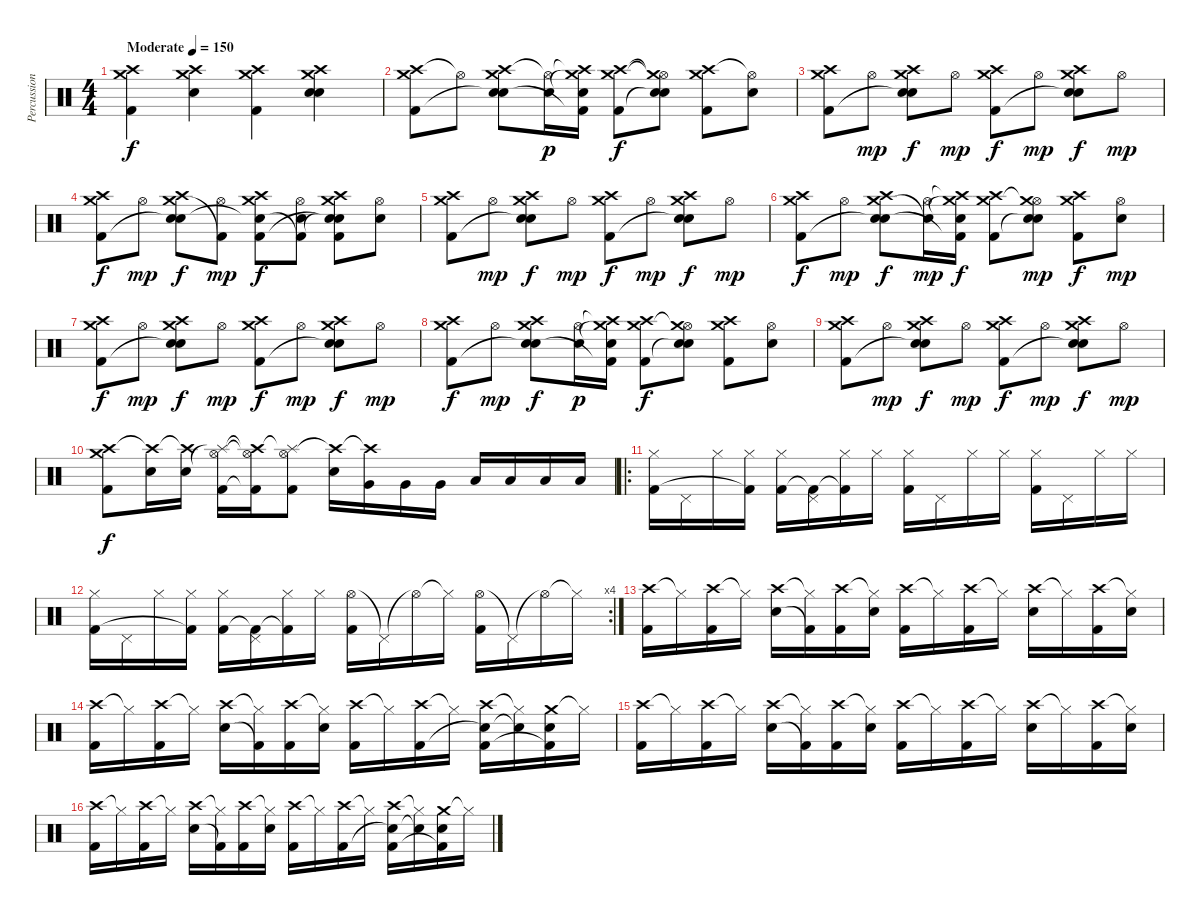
\track ("Percussion" "Percussion") {instrument percussion}
\staff {score}
\articulation defaults
\ts (4 4)
\tempo (150 "Moderate")
\clef neutral
\ks c
("Crash high (hit)" "Crash medium (hit)" "Kick (hit) 2").4{dy f} ("Crash high (hit)" "Crash medium (hit)" "Electric Snare (hit)").4 ("Crash high (hit)" "Crash medium (hit)" "Kick (hit) 2").4 ("Crash high (hit)" "Crash medium (hit)" "Electric Snare (hit)" "Electric Snare (hit)").4 |
("Crash high (hit)" "Crash medium (hit)" "Kick (hit) 2").8 "Hi-Hat (open)"{t}.8 ("Crash high (hit)" "Crash medium (hit)" "Snare (hit) 2"{t} "Electric Snare (hit)").8 ("Hi-Hat (open)"{t} "Electric Snare (hit)").16{dy p} ("Crash high (hit)"{t} "Crash medium (hit)"{t} "Electric Snare (hit)" "Kick (hit) 2"{t}).16 ("Crash high (hit)" "Crash medium (hit)" "Kick (hit) 2").8{dy f} ("Hi-Hat (open)"{t} "Crash medium (hit)"{t} "Snare (hit) 2"{t} "Electric Snare (hit)").8 ("Crash high (hit)" "Crash medium (hit)" "Kick (hit) 2").8 ("Hi-Hat (open)"{t} "Electric Snare (hit)").8 |
("Crash high (hit)" "Crash medium (hit)" "Kick (hit) 2").8 "Hi-Hat (open)".8{dy mp} ("Crash high (hit)" "Crash medium (hit)" "Snare (hit) 2"{t} "Electric Snare (hit)").8{dy f} "Hi-Hat (open)".8{dy mp} ("Crash high (hit)" "Crash medium (hit)" "Kick (hit) 2").8{dy f} "Hi-Hat (open)".8{dy mp} ("Crash high (hit)" "Crash medium (hit)" "Snare (hit) 2"{t} "Electric Snare (hit)").8{dy f} "Hi-Hat (open)".8{dy mp} |
("Crash high (hit)" "Crash medium (hit)" "Kick (hit) 2").8{dy f} "Hi-Hat (open)".8{dy mp} ("Crash high (hit)" "Crash medium (hit)" "Snare (hit) 2"{t} "Electric Snare (hit)").8{dy f} ("Hi-Hat (open)" "Kick (hit) 2"{t}).8{dy mp} ("Crash high (hit)" "Crash medium (hit)" "Electric Snare (hit)"{t} "Kick (hit) 2").8{dy f} ("Hi-Hat (open)" "Electric Snare (hit)" "Kick (hit) 2"{t}).8 ("Crash high (hit)" "Crash medium (hit)" "Snare (hit) 2"{t} "Electric Snare (hit)"{t} "Kick (hit) 2").8 ("Hi-Hat (open)" "Electric Snare (hit)").8 |
("Crash high (hit)" "Crash medium (hit)" "Kick (hit) 2").8 "Hi-Hat (open)".8{dy mp} ("Crash high (hit)" "Crash medium (hit)" "Snare (hit) 2"{t} "Electric Snare (hit)").8{dy f} "Hi-Hat (open)".8{dy mp} ("Crash high (hit)" "Crash medium (hit)" "Kick (hit) 2").8{dy f} "Hi-Hat (open)".8{dy mp} ("Crash high (hit)" "Crash medium (hit)" "Snare (hit) 2"{t} "Electric Snare (hit)").8{dy f} "Hi-Hat (open)".8{dy mp} |
("Crash high (hit)" "Crash medium (hit)" "Kick (hit) 2").8{dy f} "Hi-Hat (open)".8{dy mp} ("Crash high (hit)" "Crash medium (hit)" "Snare (hit) 2"{t} "Electric Snare (hit)").8{dy f} ("Hi-Hat (open)" "Electric Snare (hit)"{t}).16{dy mp} ("Crash high (hit)"{t} "Crash medium (hit)"{t} "Electric Snare (hit)" "Kick (hit) 2"{t}).16{dy f} ("Crash high (hit)" "Crash medium (hit)" "Kick (hit) 2").8 ("Hi-Hat (open)" "Crash medium (hit)"{t} "Snare (hit) 2"{t} "Electric Snare (hit)").8{dy mp} ("Crash high (hit)" "Crash medium (hit)" "Kick (hit) 2").8{dy f} ("Hi-Hat (open)" "Electric Snare (hit)").8{dy mp} |
("Crash high (hit)" "Crash medium (hit)" "Kick (hit) 2").8{dy f} "Hi-Hat (open)".8{dy mp} ("Crash high (hit)" "Crash medium (hit)" "Snare (hit) 2"{t} "Electric Snare (hit)").8{dy f} "Hi-Hat (open)".8{dy mp} ("Crash high (hit)" "Crash medium (hit)" "Kick (hit) 2").8{dy f} "Hi-Hat (open)".8{dy mp} ("Crash high (hit)" "Crash medium (hit)" "Snare (hit) 2"{t} "Electric Snare (hit)").8{dy f} "Hi-Hat (open)".8{dy mp} |
("Crash high (hit)" "Crash medium (hit)" "Kick (hit) 2").8{dy f} "Hi-Hat (open)".8{dy mp} ("Crash high (hit)" "Crash medium (hit)" "Snare (hit) 2"{t} "Electric Snare (hit)").8{dy f} ("Hi-Hat (open)" "Electric Snare (hit)").16{dy p} ("Crash high (hit)"{t} "Crash medium (hit)"{t} "Electric Snare (hit)" "Kick (hit) 2"{t}).16 ("Crash high (hit)" "Crash medium (hit)" "Kick (hit) 2").8{dy f} ("Hi-Hat (open)" "Crash medium (hit)"{t} "Snare (hit) 2"{t} "Electric Snare (hit)").8 ("Crash high (hit)" "Crash medium (hit)" "Kick (hit) 2").8 ("Hi-Hat (open)" "Electric Snare (hit)").8 |
("Crash high (hit)" "Crash medium (hit)" "Kick (hit) 2").8 "Hi-Hat (open)".8{dy mp} ("Crash high (hit)" "Crash medium (hit)" "Snare (hit) 2"{t} "Electric Snare (hit)").8{dy f} "Hi-Hat (open)".8{dy mp} ("Crash high (hit)" "Crash medium (hit)" "Kick (hit) 2").8{dy f} "Hi-Hat (open)".8{dy mp} ("Crash high (hit)" "Crash medium (hit)" "Snare (hit) 2"{t} "Electric Snare (hit)").8{dy f} "Hi-Hat (open)".8{dy mp} |
("Crash high (hit)" "Crash medium (hit)" "Kick (hit) 2").8{dy f} ("Crash high (hit)"{t} "Electric Snare (hit)").16 ("Crash high (hit)"{t} "Electric Snare (hit)").16 ("Hi-Hat (open)" "Splash (hit)"{t} "Kick (hit) 2").16 ("Hi-Hat (open)"{t} "Crash high (hit)"{t} "Kick (hit) 2"{t}).16 ("Hi-Hat (open)" "Splash (hit)"{t} "Kick (hit) 2").8 ("Crash high (hit)"{t} "Electric Snare (hit)").16 ("Crash high (hit)"{t} "Very Low Tom (hit)").16 "Very Low Tom (hit)".16 "Very Low Tom (hit)".16 "Low Floor Tom (hit)".16 "Low Floor Tom (hit)".16 "Low Floor Tom (hit)".16 "Low Floor Tom (hit)".16 |
\ro
("Hi-Hat (closed)" "Kick (hit) 2").16 "Pedal Hi-Hat (hit)".16 "Hi-Hat (closed)".16 ("Hi-Hat (closed)" "Kick (hit) 2"{t}).16 ("Hi-Hat (closed)" "Kick (hit) 2").16 ("Pedal Hi-Hat (hit)" "Kick (hit) 2"{t}).16 ("Hi-Hat (closed)" "Kick (hit) 2"{t}).16 "Hi-Hat (closed)".16 ("Hi-Hat (closed)" "Kick (hit) 2").16 "Pedal Hi-Hat (hit)".16 "Hi-Hat (closed)".16 "Hi-Hat (closed)".16 ("Hi-Hat (closed)" "Kick (hit) 2").16 "Pedal Hi-Hat (hit)".16 "Hi-Hat (closed)".16 "Hi-Hat (closed)".16 |
\rc 4
("Hi-Hat (closed)" "Kick (hit) 2").16 "Pedal Hi-Hat (hit)".16 "Hi-Hat (closed)".16 ("Hi-Hat (closed)" "Kick (hit) 2"{t}).16 ("Hi-Hat (closed)" "Kick (hit) 2").16 ("Pedal Hi-Hat (hit)" "Kick (hit) 2"{t}).16 ("Hi-Hat (closed)" "Kick (hit) 2"{t}).16 "Hi-Hat (closed)".16 ("Hi-Hat (open)" "Kick (hit) 2").16 "Pedal Hi-Hat (hit)"{t}.16 "Hi-Hat (open)"{t}.16 "Hi-Hat (closed)"{t}.16 ("Hi-Hat (open)" "Kick (hit) 2").16 "Pedal Hi-Hat (hit)"{t}.16 "Hi-Hat (open)"{t}.16 "Hi-Hat (closed)"{t}.16 |
("Crash high (hit)" "Kick (hit) 2").16 "Hi-Hat (closed)"{t}.16 ("Crash high (hit)" "Kick (hit) 2").16 "Hi-Hat (closed)"{t}.16 ("Crash high (hit)" "Electric Snare (hit)").16 ("Hi-Hat (closed)"{t} "Kick (hit) 2"{t}).16 ("Crash high (hit)" "Kick (hit) 2").16 ("Hi-Hat (closed)"{t} "Electric Snare (hit)").16 ("Crash high (hit)" "Kick (hit) 2").16 "Hi-Hat (closed)"{t}.16 ("Crash high (hit)" "Kick (hit) 2").16 "Hi-Hat (closed)"{t}.16 ("Crash high (hit)" "Electric Snare (hit)").16 "Hi-Hat (closed)"{t}.16 ("Crash high (hit)" "Kick (hit) 2").16 ("Hi-Hat (closed)"{t} "Electric Snare (hit)").16 |
("Crash high (hit)" "Kick (hit) 2").16 "Hi-Hat (closed)"{t}.16 ("Crash high (hit)" "Kick (hit) 2").16 "Hi-Hat (closed)"{t}.16 ("Crash high (hit)" "Electric Snare (hit)").16 ("Hi-Hat (closed)"{t} "Kick (hit) 2"{t}).16 ("Crash high (hit)" "Kick (hit) 2").16 ("Hi-Hat (closed)"{t} "Electric Snare (hit)").16 ("Crash high (hit)" "Kick (hit) 2").16 "Hi-Hat (closed)"{t}.16 ("Crash high (hit)" "Kick (hit) 2").16 "Hi-Hat (closed)"{t}.16 ("Crash high (hit)" "Electric Snare (hit)"{t} "Kick (hit) 2").16 ("Hi-Hat (closed)"{t} "Electric Snare (hit)"{t}).16 ("Crash medium (hit)" "Electric Snare (hit)" "Kick (hit) 2"{t}).16 "Hi-Hat (closed)"{t}.16 |
("Crash high (hit)" "Kick (hit) 2").16 "Hi-Hat (closed)"{t}.16 ("Crash high (hit)" "Kick (hit) 2").16 "Hi-Hat (closed)"{t}.16 ("Crash high (hit)" "Electric Snare (hit)").16 ("Hi-Hat (closed)"{t} "Kick (hit) 2"{t}).16 ("Crash high (hit)" "Kick (hit) 2").16 ("Hi-Hat (closed)"{t} "Electric Snare (hit)").16 ("Crash high (hit)" "Kick (hit) 2").16 "Hi-Hat (closed)"{t}.16 ("Crash high (hit)" "Kick (hit) 2").16 "Hi-Hat (closed)"{t}.16 ("Crash high (hit)" "Electric Snare (hit)").16 "Hi-Hat (closed)"{t}.16 ("Crash high (hit)" "Kick (hit) 2").16 ("Hi-Hat (closed)"{t} "Electric Snare (hit)").16 |
("Crash high (hit)" "Kick (hit) 2").16 "Hi-Hat (closed)"{t}.16 ("Crash high (hit)" "Kick (hit) 2").16 "Hi-Hat (closed)"{t}.16 ("Crash high (hit)" "Electric Snare (hit)").16 ("Hi-Hat (closed)"{t} "Kick (hit) 2"{t}).16 ("Crash high (hit)" "Kick (hit) 2").16 ("Hi-Hat (closed)"{t} "Electric Snare (hit)").16 ("Crash high (hit)" "Kick (hit) 2").16 "Hi-Hat (closed)"{t}.16 ("Crash high (hit)" "Kick (hit) 2").16 "Hi-Hat (closed)"{t}.16 ("Crash high (hit)" "Electric Snare (hit)"{t} "Kick (hit) 2").16 ("Hi-Hat (closed)"{t} "Electric Snare (hit)"{t}).16 ("Crash medium (hit)" "Electric Snare (hit)" "Kick (hit) 2"{t}).16 "Hi-Hat (closed)"{t}.16
